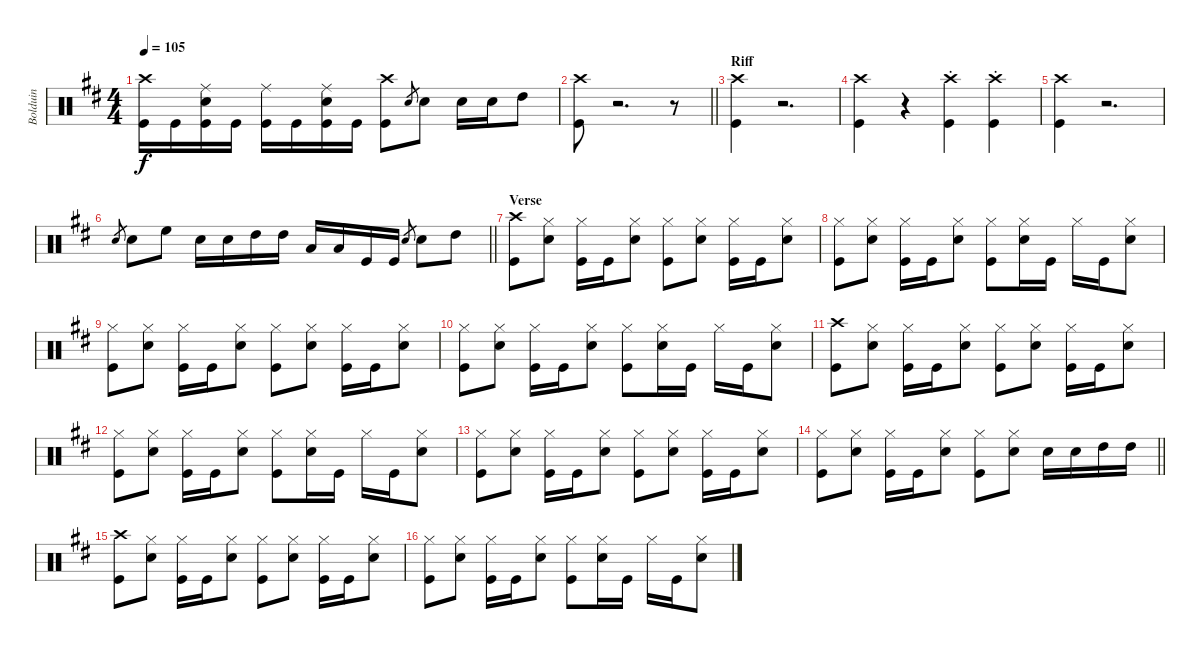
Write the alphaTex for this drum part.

\track ("Bolduin" "Bolduin") {instrument percussion}
\staff {score}
\articulation defaults
\ts (4 4)
\tempo 105
\clef neutral
\ks bminor
("Kick (hit)" "Crash high (hit)").16{dy f} "Kick (hit)".16 ("Kick (hit)" "Ride (middle)" "Snare (hit) 2").16 "Kick (hit)".16 ("Kick (hit)" "Ride (middle)").16 "Kick (hit)".16 ("Kick (hit)" "Ride (middle)" "Snare (hit) 2").16 "Kick (hit)".16 ("Kick (hit)" "Crash high (hit)").8 "Snare (hit) 2".8{gr} "Snare (hit) 2".8 "Snare (hit) 2".16 "Snare (hit) 2".16 "High Tom (hit)".8 |
\barLineRight lightlight
("Crash high (hit)" "Kick (hit)").8 r.2{d} r.8 |
\section ("" "Riff")
("Crash high (hit)" "Kick (hit)").4 r.2{d} |
("Crash high (hit)" "Kick (hit)").4 r.4 ("Crash high (hit)"{st} "Kick (hit)").4 ("Crash high (hit)"{st} "Kick (hit)").4 |
("Crash high (hit)" "Kick (hit)").4 r.2{d} |
\barLineRight lightlight "Snare (hit) 2".8{gr} "Snare (hit) 2".8 "High Floor Tom (hit)".8 "Snare (hit) 2".16 "Snare (hit) 2".16 "High Tom (hit)".16 "High Tom (hit)".16 "Low Tom (hit)".16 "Low Tom (hit)".16 "Kick (hit)".16 "Kick (hit)".16 "Snare (hit) 2".8{gr} "Snare (hit) 2".8 "High Tom (hit)".8
|
\section ("" "Verse")
("Kick (hit)" "Crash high (hit)").8 ("Hi-Hat (closed)" "Snare (hit) 2").8 ("Kick (hit)" "Hi-Hat (closed)").16 "Kick (hit)".16 ("Snare (hit) 2" "Hi-Hat (closed)").8 ("Kick (hit)" "Hi-Hat (closed)").8 ("Hi-Hat (closed)" "Snare (hit) 2").8 ("Hi-Hat (closed)" "Kick (hit)").16 "Kick (hit)".16 ("Snare (hit) 2" "Hi-Hat (closed)").8 |
("Hi-Hat (closed)" "Kick (hit)").8 ("Hi-Hat (closed)" "Snare (hit) 2").8 ("Kick (hit)" "Hi-Hat (closed)").16 "Kick (hit)".16 ("Snare (hit) 2" "Hi-Hat (closed)").8 ("Kick (hit)" "Hi-Hat (closed)").8 ("Hi-Hat (closed)" "Snare (hit) 2").16 "Kick (hit)".16 "Hi-Hat (closed)".16 "Kick (hit)".16 ("Snare (hit) 2" "Hi-Hat (closed)").8 |
("Hi-Hat (closed)" "Kick (hit)").8 ("Hi-Hat (closed)" "Snare (hit) 2").8 ("Kick (hit)" "Hi-Hat (closed)").16 "Kick (hit)".16 ("Snare (hit) 2" "Hi-Hat (closed)").8 ("Hi-Hat (closed)" "Kick (hit)").8 ("Hi-Hat (closed)" "Snare (hit) 2").8 ("Kick (hit)" "Hi-Hat (closed)").16 "Kick (hit)".16 ("Snare (hit) 2" "Hi-Hat (closed)").8 |
("Hi-Hat (closed)" "Kick (hit)").8 ("Hi-Hat (closed)" "Snare (hit) 2").8 ("Kick (hit)" "Hi-Hat (closed)").16 "Kick (hit)".16 ("Snare (hit) 2" "Hi-Hat (closed)").8 ("Kick (hit)" "Hi-Hat (closed)").8 ("Hi-Hat (closed)" "Snare (hit) 2").16 "Kick (hit)".16 "Hi-Hat (closed)".16 "Kick (hit)".16 ("Snare (hit) 2" "Hi-Hat (closed)").8 |
("Crash high (hit)" "Kick (hit)").8 ("Hi-Hat (closed)" "Snare (hit) 2").8 ("Kick (hit)" "Hi-Hat (closed)").16 "Kick (hit)".16 ("Snare (hit) 2" "Hi-Hat (closed)").8 ("Hi-Hat (closed)" "Kick (hit)").8 ("Hi-Hat (closed)" "Snare (hit) 2").8 ("Kick (hit)" "Hi-Hat (closed)").16 "Kick (hit)".16 ("Snare (hit) 2" "Hi-Hat (closed)").8 |
("Hi-Hat (closed)" "Kick (hit)").8 ("Hi-Hat (closed)" "Snare (hit) 2").8 ("Kick (hit)" "Hi-Hat (closed)").16 "Kick (hit)".16 ("Snare (hit) 2" "Hi-Hat (closed)").8 ("Kick (hit)" "Hi-Hat (closed)").8 ("Hi-Hat (closed)" "Snare (hit) 2").16 "Kick (hit)".16 "Hi-Hat (closed)".16 "Kick (hit)".16 ("Snare (hit) 2" "Hi-Hat (closed)").8 |
("Hi-Hat (closed)" "Kick (hit)").8 ("Hi-Hat (closed)" "Snare (hit) 2").8 ("Kick (hit)" "Hi-Hat (closed)").16 "Kick (hit)".16 ("Snare (hit) 2" "Hi-Hat (closed)").8 ("Kick (hit)" "Hi-Hat (closed)").8 ("Hi-Hat (closed)" "Snare (hit) 2").8 ("Hi-Hat (closed)" "Kick (hit)").16 "Kick (hit)".16 ("Snare (hit) 2" "Hi-Hat (closed)").8 |
\barLineRight lightlight
("Hi-Hat (closed)" "Kick (hit)").8 ("Hi-Hat (closed)" "Snare (hit) 2").8 ("Kick (hit)" "Hi-Hat (closed)").16 "Kick (hit)".16 ("Snare (hit) 2" "Hi-Hat (closed)").8 ("Kick (hit)" "Hi-Hat (closed)").8 ("Hi-Hat (closed)" "Snare (hit) 2").8 "Snare (hit) 2".16 "Snare (hit) 2".16 "High Tom (hit)".16 "High Tom (hit)".16 |
("Crash high (hit)" "Kick (hit)").8 ("Hi-Hat (closed)" "Snare (hit) 2").8 ("Kick (hit)" "Hi-Hat (closed)").16 "Kick (hit)".16 ("Snare (hit) 2" "Hi-Hat (closed)").8 ("Hi-Hat (closed)" "Kick (hit)").8 ("Hi-Hat (closed)" "Snare (hit) 2").8 ("Kick (hit)" "Hi-Hat (closed)").16 "Kick (hit)".16 ("Snare (hit) 2" "Hi-Hat (closed)").8 |
("Hi-Hat (closed)" "Kick (hit)").8 ("Hi-Hat (closed)" "Snare (hit) 2").8 ("Kick (hit)" "Hi-Hat (closed)").16 "Kick (hit)".16 ("Snare (hit) 2" "Hi-Hat (closed)").8 ("Kick (hit)" "Hi-Hat (closed)").8 ("Hi-Hat (closed)" "Snare (hit) 2").16 "Kick (hit)".16 "Hi-Hat (closed)".16 "Kick (hit)".16 ("Snare (hit) 2" "Hi-Hat (closed)").8
